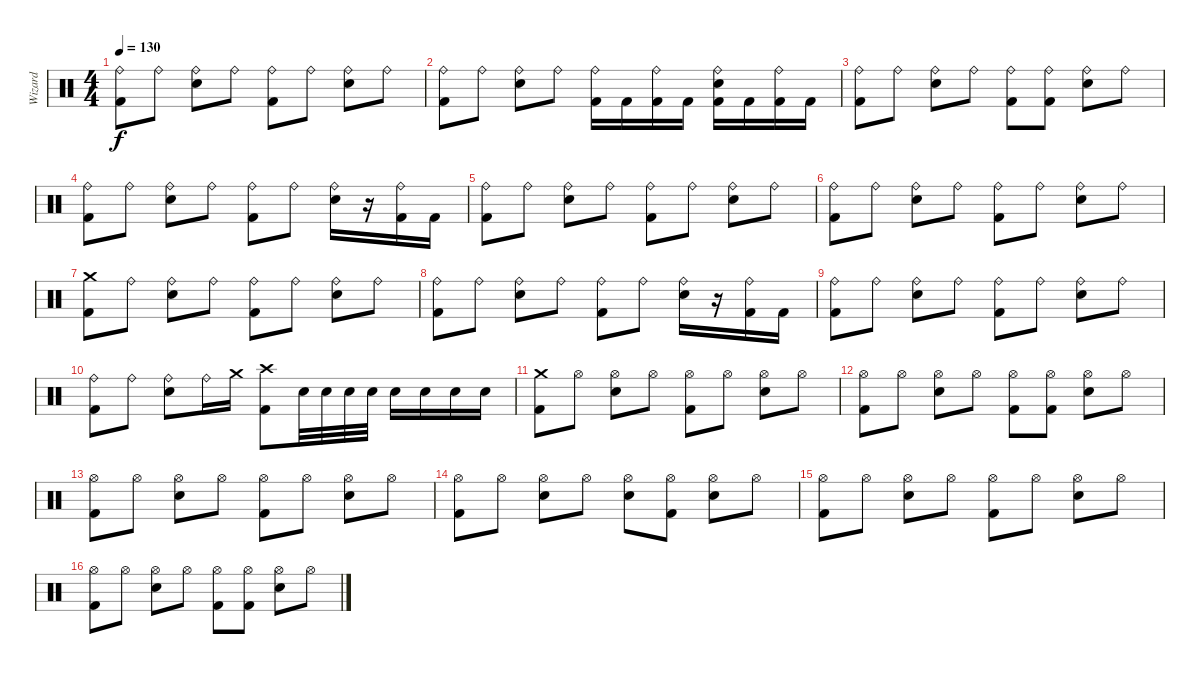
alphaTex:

\track ("Wizard" "Wizard") {instrument percussion}
\staff {score}
\articulation defaults
\ts (4 4)
\tempo 130
\clef neutral
\ks c
("Ride (bell)" "Kick (hit) 2").8{dy f} "Ride (bell)".8 ("Ride (bell)" "Snare (hit) 2").8 "Ride (bell)".8 ("Ride (bell)" "Kick (hit) 2").8 "Ride (bell)".8 ("Ride (bell)" "Snare (hit) 2").8 "Ride (bell)".8 |
("Ride (bell)" "Kick (hit) 2").8 "Ride (bell)".8 ("Ride (bell)" "Snare (hit) 2").8 "Ride (bell)".8 ("Ride (bell)" "Kick (hit) 2").16 "Kick (hit) 2".16 ("Ride (bell)" "Kick (hit) 2").16 "Kick (hit) 2".16 ("Ride (bell)" "Snare (hit) 2" "Kick (hit) 2").16 "Kick (hit) 2".16 ("Ride (bell)" "Kick (hit) 2").16 "Kick (hit) 2".16 |
("Ride (bell)" "Kick (hit) 2").8 "Ride (bell)".8 ("Ride (bell)" "Snare (hit) 2").8 "Ride (bell)".8 ("Ride (bell)" "Kick (hit) 2").8 ("Ride (bell)" "Kick (hit) 2").8 ("Ride (bell)" "Snare (hit) 2").8 "Ride (bell)".8 |
("Ride (bell)" "Kick (hit) 2").8 "Ride (bell)".8 ("Ride (bell)" "Snare (hit) 2").8 "Ride (bell)".8 ("Ride (bell)" "Kick (hit) 2").8 "Ride (bell)".8 ("Ride (bell)" "Snare (hit) 2").16 r.16 ("Ride (bell)" "Kick (hit) 2").16 "Kick (hit) 2".16 |
("Ride (bell)" "Kick (hit) 2").8 "Ride (bell)".8 ("Ride (bell)" "Snare (hit) 2").8 "Ride (bell)".8 ("Ride (bell)" "Kick (hit) 2").8 "Ride (bell)".8 ("Ride (bell)" "Snare (hit) 2").8 "Ride (bell)".8 |
("Ride (bell)" "Kick (hit) 2").8 "Ride (bell)".8 ("Ride (bell)" "Snare (hit) 2").8 "Ride (bell)".8 ("Ride (bell)" "Kick (hit) 2").8 "Ride (bell)".8 ("Ride (bell)" "Snare (hit) 2").8 "Ride (bell)".8 |
("Crash medium (hit)" "Kick (hit) 2").8 "Ride (bell)".8 ("Ride (bell)" "Snare (hit) 2").8 "Ride (bell)".8 ("Ride (bell)" "Kick (hit) 2").8 "Ride (bell)".8 ("Ride (bell)" "Snare (hit) 2").8 "Ride (bell)".8 |
("Ride (bell)" "Kick (hit) 2").8 "Ride (bell)".8 ("Ride (bell)" "Snare (hit) 2").8 "Ride (bell)".8 ("Ride (bell)" "Kick (hit) 2").8 "Ride (bell)".8 ("Ride (bell)" "Snare (hit) 2").16 r.16 ("Ride (bell)" "Kick (hit) 2").16 "Kick (hit) 2".16 |
("Ride (bell)" "Kick (hit) 2").8 "Ride (bell)".8 ("Ride (bell)" "Snare (hit) 2").8 "Ride (bell)".8 ("Ride (bell)" "Kick (hit) 2").8 "Ride (bell)".8 ("Ride (bell)" "Snare (hit) 2").8 "Ride (bell)".8 |
("Ride (bell)" "Kick (hit) 2").8 "Ride (bell)".8 ("Ride (bell)" "Snare (hit) 2").8 "Ride (bell)".16 "Crash medium (hit)".16 ("Crash high (hit)" "Kick (hit) 2").8 "Snare (hit) 2".32 "Snare (hit) 2".32 "Snare (hit) 2".32 "Snare (hit) 2".32 "Snare (hit) 2".16 "Snare (hit) 2".16 "Snare (hit) 2".16 "Snare (hit) 2".16 |
("Crash medium (hit)" "Kick (hit) 2").8 "Hi-Hat (open)".8 ("Hi-Hat (open)" "Snare (hit) 2").8 "Hi-Hat (open)".8 ("Hi-Hat (open)" "Kick (hit) 2").8 "Hi-Hat (open)".8 ("Hi-Hat (open)" "Snare (hit) 2").8 "Hi-Hat (open)".8 |
("Hi-Hat (open)" "Kick (hit) 2").8 "Hi-Hat (open)".8 ("Hi-Hat (open)" "Snare (hit) 2").8 "Hi-Hat (open)".8 ("Hi-Hat (open)" "Kick (hit) 2").8 ("Hi-Hat (open)" "Kick (hit) 2").8 ("Hi-Hat (open)" "Snare (hit) 2").8 "Hi-Hat (open)".8 |
("Hi-Hat (open)" "Kick (hit) 2").8 "Hi-Hat (open)".8 ("Hi-Hat (open)" "Snare (hit) 2").8 "Hi-Hat (open)".8 ("Hi-Hat (open)" "Kick (hit) 2").8 "Hi-Hat (open)".8 ("Hi-Hat (open)" "Snare (hit) 2").8 "Hi-Hat (open)".8 |
("Hi-Hat (open)" "Kick (hit) 2").8 "Hi-Hat (open)".8 ("Hi-Hat (open)" "Snare (hit) 2").8 "Hi-Hat (open)".8 ("Hi-Hat (open)" "Snare (hit) 2").8 ("Hi-Hat (open)" "Kick (hit) 2").8 ("Hi-Hat (open)" "Snare (hit) 2").8 "Hi-Hat (open)".8 |
("Hi-Hat (open)" "Kick (hit) 2").8 "Hi-Hat (open)".8 ("Hi-Hat (open)" "Snare (hit) 2").8 "Hi-Hat (open)".8 ("Hi-Hat (open)" "Kick (hit) 2").8 "Hi-Hat (open)".8 ("Hi-Hat (open)" "Snare (hit) 2").8 "Hi-Hat (open)".8 |
("Hi-Hat (open)" "Kick (hit) 2").8 "Hi-Hat (open)".8 ("Hi-Hat (open)" "Snare (hit) 2").8 "Hi-Hat (open)".8 ("Hi-Hat (open)" "Kick (hit) 2").8 ("Hi-Hat (open)" "Kick (hit) 2").8 ("Hi-Hat (open)" "Snare (hit) 2").8 "Hi-Hat (open)".8
